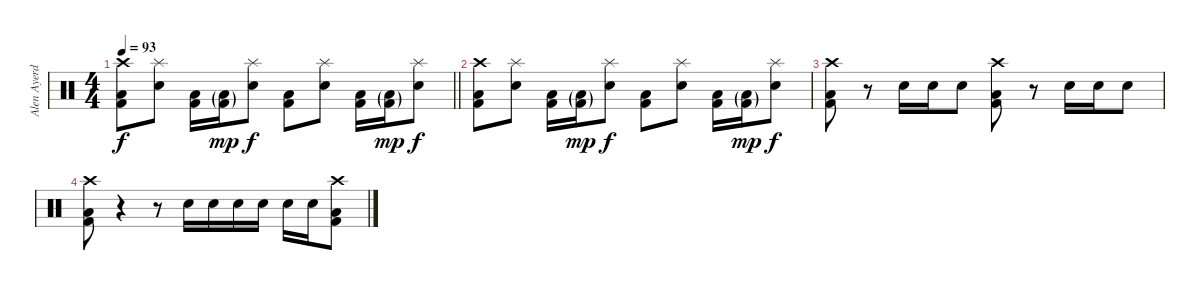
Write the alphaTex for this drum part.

\track ("Alen Ayerdi" "Alen Ayerd") {instrument percussion}
\staff {score}
\articulation defaults
\ts (4 4)
\tempo 93
\clef neutral
\barLineRight lightlight
\ks c
("Crash high (hit)" "Low Floor Tom (hit)" "Kick (hit) 2").8{dy f} ("Splash (hit)" "Electric Snare (hit)").8 ("Low Floor Tom (hit)" "Kick (hit) 2").16 ("Low Floor Tom (hit)"{g} "Kick (hit) 2"{g}).16{dy mp} ("Splash (hit)" "Electric Snare (hit)").8{dy f} ("Low Floor Tom (hit)" "Kick (hit) 2").8 ("Splash (hit)" "Electric Snare (hit)").8 ("Low Floor Tom (hit)" "Kick (hit) 2").16 ("Low Floor Tom (hit)"{g} "Kick (hit) 2"{g}).16{dy mp} ("Splash (hit)" "Electric Snare (hit)").8{dy f} |
("Crash high (hit)" "Low Floor Tom (hit)" "Kick (hit) 2").8 ("Splash (hit)" "Electric Snare (hit)").8 ("Low Floor Tom (hit)" "Kick (hit) 2").16 ("Low Floor Tom (hit)"{g} "Kick (hit) 2"{g}).16{dy mp} ("Splash (hit)" "Electric Snare (hit)").8{dy f} ("Low Floor Tom (hit)" "Kick (hit) 2").8 ("Splash (hit)" "Electric Snare (hit)").8 ("Low Floor Tom (hit)" "Kick (hit) 2").16 ("Low Floor Tom (hit)"{g} "Kick (hit) 2"{g}).16{dy mp} ("Splash (hit)" "Electric Snare (hit)").8{dy f} |
("Crash high (hit)" "Low Floor Tom (hit)" "Kick (hit) 2").8 r.8 "Electric Snare (hit)".16 "Electric Snare (hit)".16 "Electric Snare (hit)".8 ("Crash high (hit)" "Low Floor Tom (hit)" "Kick (hit) 2").8 r.8 "Electric Snare (hit)".16 "Electric Snare (hit)".16 "Electric Snare (hit)".8 |
("Crash high (hit)" "Low Floor Tom (hit)" "Kick (hit) 2").8 r.4 r.8 "Electric Snare (hit)".16 "Electric Snare (hit)".16 "Electric Snare (hit)".16 "Electric Snare (hit)".16 "Electric Snare (hit)".16 "Electric Snare (hit)".16 ("Crash high (hit)" "Low Floor Tom (hit)" "Kick (hit) 2").8
